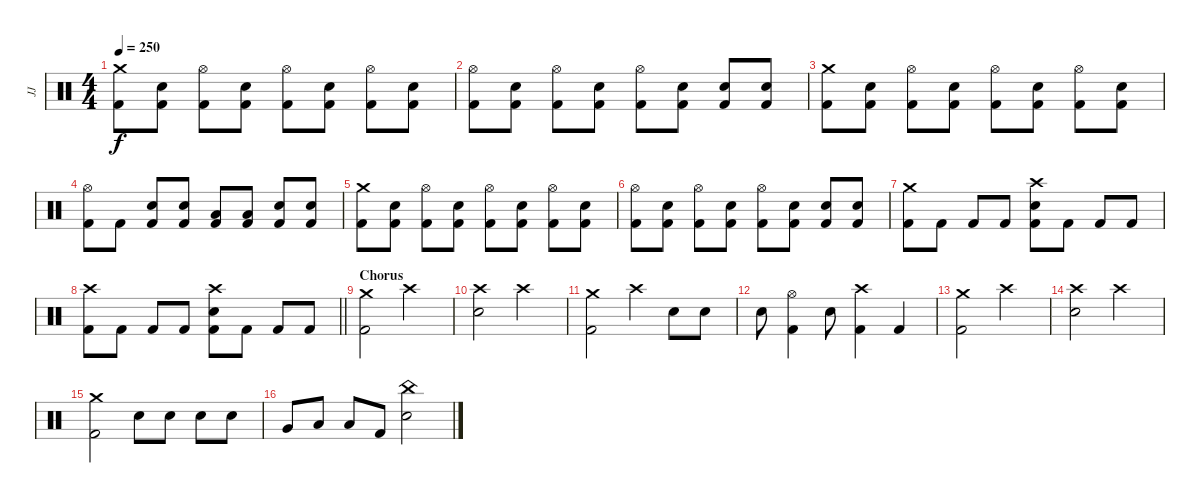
\track ("JJ" "JJ") {instrument percussion}
\staff {score}
\articulation defaults
\ts (4 4)
\tempo 250
\clef neutral
\ks c
("Crash medium (hit)" "Kick (hit) 2").8{dy f} ("Electric Snare (hit)" "Kick (hit) 2").8 ("Hi-Hat (open)" "Kick (hit) 2").8 ("Electric Snare (hit)" "Kick (hit) 2").8 ("Hi-Hat (open)" "Kick (hit) 2").8 ("Electric Snare (hit)" "Kick (hit) 2").8 ("Hi-Hat (open)" "Kick (hit) 2").8 ("Electric Snare (hit)" "Kick (hit) 2").8 |
("Hi-Hat (open)" "Kick (hit) 2").8 ("Electric Snare (hit)" "Kick (hit) 2").8 ("Hi-Hat (open)" "Kick (hit) 2").8 ("Electric Snare (hit)" "Kick (hit) 2").8 ("Hi-Hat (open)" "Kick (hit) 2").8 ("Electric Snare (hit)" "Kick (hit) 2").8 ("Electric Snare (hit)" "Kick (hit) 2").8 ("Electric Snare (hit)" "Kick (hit) 2").8 |
("Crash medium (hit)" "Kick (hit) 2").8 ("Electric Snare (hit)" "Kick (hit) 2").8 ("Hi-Hat (open)" "Kick (hit) 2").8 ("Electric Snare (hit)" "Kick (hit) 2").8 ("Hi-Hat (open)" "Kick (hit) 2").8 ("Electric Snare (hit)" "Kick (hit) 2").8 ("Hi-Hat (open)" "Kick (hit) 2").8 ("Electric Snare (hit)" "Kick (hit) 2").8 |
("Hi-Hat (open)" "Kick (hit) 2").8 "Kick (hit) 2".8 ("Electric Snare (hit)" "Kick (hit) 2").8 ("Electric Snare (hit)" "Kick (hit) 2").8 ("Low Floor Tom (hit)" "Kick (hit) 2").8 ("Low Floor Tom (hit)" "Kick (hit) 2").8 ("Electric Snare (hit)" "Kick (hit) 2").8 ("Electric Snare (hit)" "Kick (hit) 2").8 |
("Crash medium (hit)" "Kick (hit) 2").8 ("Electric Snare (hit)" "Kick (hit) 2").8 ("Hi-Hat (open)" "Kick (hit) 2").8 ("Electric Snare (hit)" "Kick (hit) 2").8 ("Hi-Hat (open)" "Kick (hit) 2").8 ("Electric Snare (hit)" "Kick (hit) 2").8 ("Hi-Hat (open)" "Kick (hit) 2").8 ("Electric Snare (hit)" "Kick (hit) 2").8 |
("Hi-Hat (open)" "Kick (hit) 2").8 ("Electric Snare (hit)" "Kick (hit) 2").8 ("Hi-Hat (open)" "Kick (hit) 2").8 ("Electric Snare (hit)" "Kick (hit) 2").8 ("Hi-Hat (open)" "Kick (hit) 2").8 ("Electric Snare (hit)" "Kick (hit) 2").8 ("Electric Snare (hit)" "Kick (hit) 2").8 ("Electric Snare (hit)" "Kick (hit) 2").8 |
("Crash medium (hit)" "Kick (hit) 2").8 "Kick (hit) 2".8 "Kick (hit) 2".8 "Kick (hit) 2".8 ("Crash high (hit)" "Electric Snare (hit)" "Kick (hit) 2").8 "Kick (hit) 2".8 "Kick (hit) 2".8 "Kick (hit) 2".8 |
\barLineRight lightlight
("Crash high (hit)" "Kick (hit) 2").8 "Kick (hit) 2".8 "Kick (hit) 2".8 "Kick (hit) 2".8 ("Crash high (hit)" "Electric Snare (hit)" "Kick (hit) 2").8 "Kick (hit) 2".8 "Kick (hit) 2".8 "Kick (hit) 2".8 |
\section ("" "Chorus")
("Crash medium (hit)" "Kick (hit) 2").2 "Crash high (hit)".2 |
("Crash high (hit)" "Electric Snare (hit)").2 "Crash high (hit)".2 |
("Crash medium (hit)" "Kick (hit) 2").2 "Crash high (hit)".4 "Electric Snare (hit)".8 "Electric Snare (hit)".8 |
"Electric Snare (hit)".8 ("Hi-Hat (open)" "Kick (hit) 2").4 "Electric Snare (hit)".8 ("Crash high (hit)" "Kick (hit) 2").4 "Kick (hit) 2".4 |
("Crash medium (hit)" "Kick (hit) 2").2 "Crash high (hit)".2 |
("Crash high (hit)" "Electric Snare (hit)").2 "Crash high (hit)".2 |
("Crash medium (hit)" "Kick (hit) 2").2 "Electric Snare (hit)".8 "Electric Snare (hit)".8 "Electric Snare (hit)".8 "Electric Snare (hit)".8 |
"Very Low Tom (hit)".8 "Low Floor Tom (hit)".8 "Low Floor Tom (hit)".8 "Kick (hit) 2".8 ("China (hit)" "Electric Snare (hit)").2
